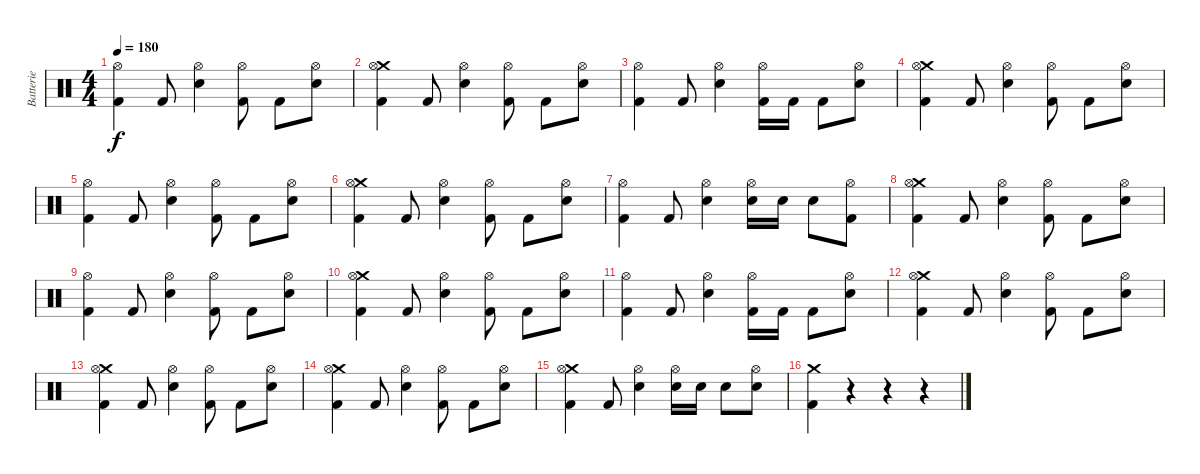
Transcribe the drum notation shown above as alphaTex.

\track ("Batterie" "Batterie") {instrument percussion}
\staff {score}
\articulation defaults
\ts (4 4)
\tempo 180
\clef neutral
\ks c
("Hi-Hat (open)" "Kick (hit) 2").4{dy f} "Kick (hit) 2".8 ("Hi-Hat (open)" "Electric Snare (hit)").4 ("Hi-Hat (open)" "Kick (hit) 2").8 "Kick (hit) 2".8 ("Hi-Hat (open)" "Electric Snare (hit)").8 |
("Crash medium (hit)" "Hi-Hat (open)" "Kick (hit) 2").4 "Kick (hit) 2".8 ("Hi-Hat (open)" "Electric Snare (hit)").4 ("Hi-Hat (open)" "Kick (hit) 2").8 "Kick (hit) 2".8 ("Hi-Hat (open)" "Electric Snare (hit)").8 |
("Hi-Hat (open)" "Kick (hit) 2").4 "Kick (hit) 2".8 ("Hi-Hat (open)" "Electric Snare (hit)").4 ("Hi-Hat (open)" "Kick (hit) 2").16 "Kick (hit) 2".16 "Kick (hit) 2".8 ("Hi-Hat (open)" "Electric Snare (hit)").8 |
("Crash medium (hit)" "Hi-Hat (open)" "Kick (hit) 2").4 "Kick (hit) 2".8 ("Hi-Hat (open)" "Electric Snare (hit)").4 ("Hi-Hat (open)" "Kick (hit) 2").8 "Kick (hit) 2".8 ("Hi-Hat (open)" "Electric Snare (hit)").8 |
("Hi-Hat (open)" "Kick (hit) 2").4 "Kick (hit) 2".8 ("Hi-Hat (open)" "Electric Snare (hit)").4 ("Hi-Hat (open)" "Kick (hit) 2").8 "Kick (hit) 2".8 ("Hi-Hat (open)" "Electric Snare (hit)").8 |
("Crash medium (hit)" "Hi-Hat (open)" "Kick (hit) 2").4 "Kick (hit) 2".8 ("Hi-Hat (open)" "Electric Snare (hit)").4 ("Hi-Hat (open)" "Kick (hit) 2").8 "Kick (hit) 2".8 ("Hi-Hat (open)" "Electric Snare (hit)").8 |
("Hi-Hat (open)" "Kick (hit) 2").4 "Kick (hit) 2".8 ("Hi-Hat (open)" "Electric Snare (hit)").4 ("Hi-Hat (open)" "Electric Snare (hit)").16 "Electric Snare (hit)".16 "Electric Snare (hit)".8 ("Hi-Hat (open)" "Kick (hit) 2").8 |
("Crash medium (hit)" "Hi-Hat (open)" "Kick (hit) 2").4 "Kick (hit) 2".8 ("Hi-Hat (open)" "Electric Snare (hit)").4 ("Hi-Hat (open)" "Kick (hit) 2").8 "Kick (hit) 2".8 ("Hi-Hat (open)" "Electric Snare (hit)").8 |
("Hi-Hat (open)" "Kick (hit) 2").4 "Kick (hit) 2".8 ("Hi-Hat (open)" "Electric Snare (hit)").4 ("Hi-Hat (open)" "Kick (hit) 2").8 "Kick (hit) 2".8 ("Hi-Hat (open)" "Electric Snare (hit)").8 |
("Crash medium (hit)" "Hi-Hat (open)" "Kick (hit) 2").4 "Kick (hit) 2".8 ("Hi-Hat (open)" "Electric Snare (hit)").4 ("Hi-Hat (open)" "Kick (hit) 2").8 "Kick (hit) 2".8 ("Hi-Hat (open)" "Electric Snare (hit)").8 |
("Hi-Hat (open)" "Kick (hit) 2").4 "Kick (hit) 2".8 ("Hi-Hat (open)" "Electric Snare (hit)").4 ("Hi-Hat (open)" "Kick (hit) 2").16 "Kick (hit) 2".16 "Kick (hit) 2".8 ("Hi-Hat (open)" "Electric Snare (hit)").8 |
("Crash medium (hit)" "Hi-Hat (open)" "Kick (hit) 2").4 "Kick (hit) 2".8 ("Hi-Hat (open)" "Electric Snare (hit)").4 ("Hi-Hat (open)" "Kick (hit) 2").8 "Kick (hit) 2".8 ("Hi-Hat (open)" "Electric Snare (hit)").8 |
("Crash medium (hit)" "Hi-Hat (open)" "Kick (hit) 2").4 "Kick (hit) 2".8 ("Hi-Hat (open)" "Electric Snare (hit)").4 ("Hi-Hat (open)" "Kick (hit) 2").8 "Kick (hit) 2".8 ("Hi-Hat (open)" "Electric Snare (hit)").8 |
("Crash medium (hit)" "Hi-Hat (open)" "Kick (hit) 2").4 "Kick (hit) 2".8 ("Hi-Hat (open)" "Electric Snare (hit)").4 ("Hi-Hat (open)" "Kick (hit) 2").8 "Kick (hit) 2".8 ("Hi-Hat (open)" "Electric Snare (hit)").8 |
("Crash medium (hit)" "Hi-Hat (open)" "Kick (hit) 2").4 "Kick (hit) 2".8 ("Hi-Hat (open)" "Electric Snare (hit)").4 ("Hi-Hat (open)" "Electric Snare (hit)").16 "Electric Snare (hit)".16 "Electric Snare (hit)".8 ("Hi-Hat (open)" "Electric Snare (hit)").8 |
("Kick (hit) 2" "Crash medium (hit)").4 r.4 r.4 r.4
